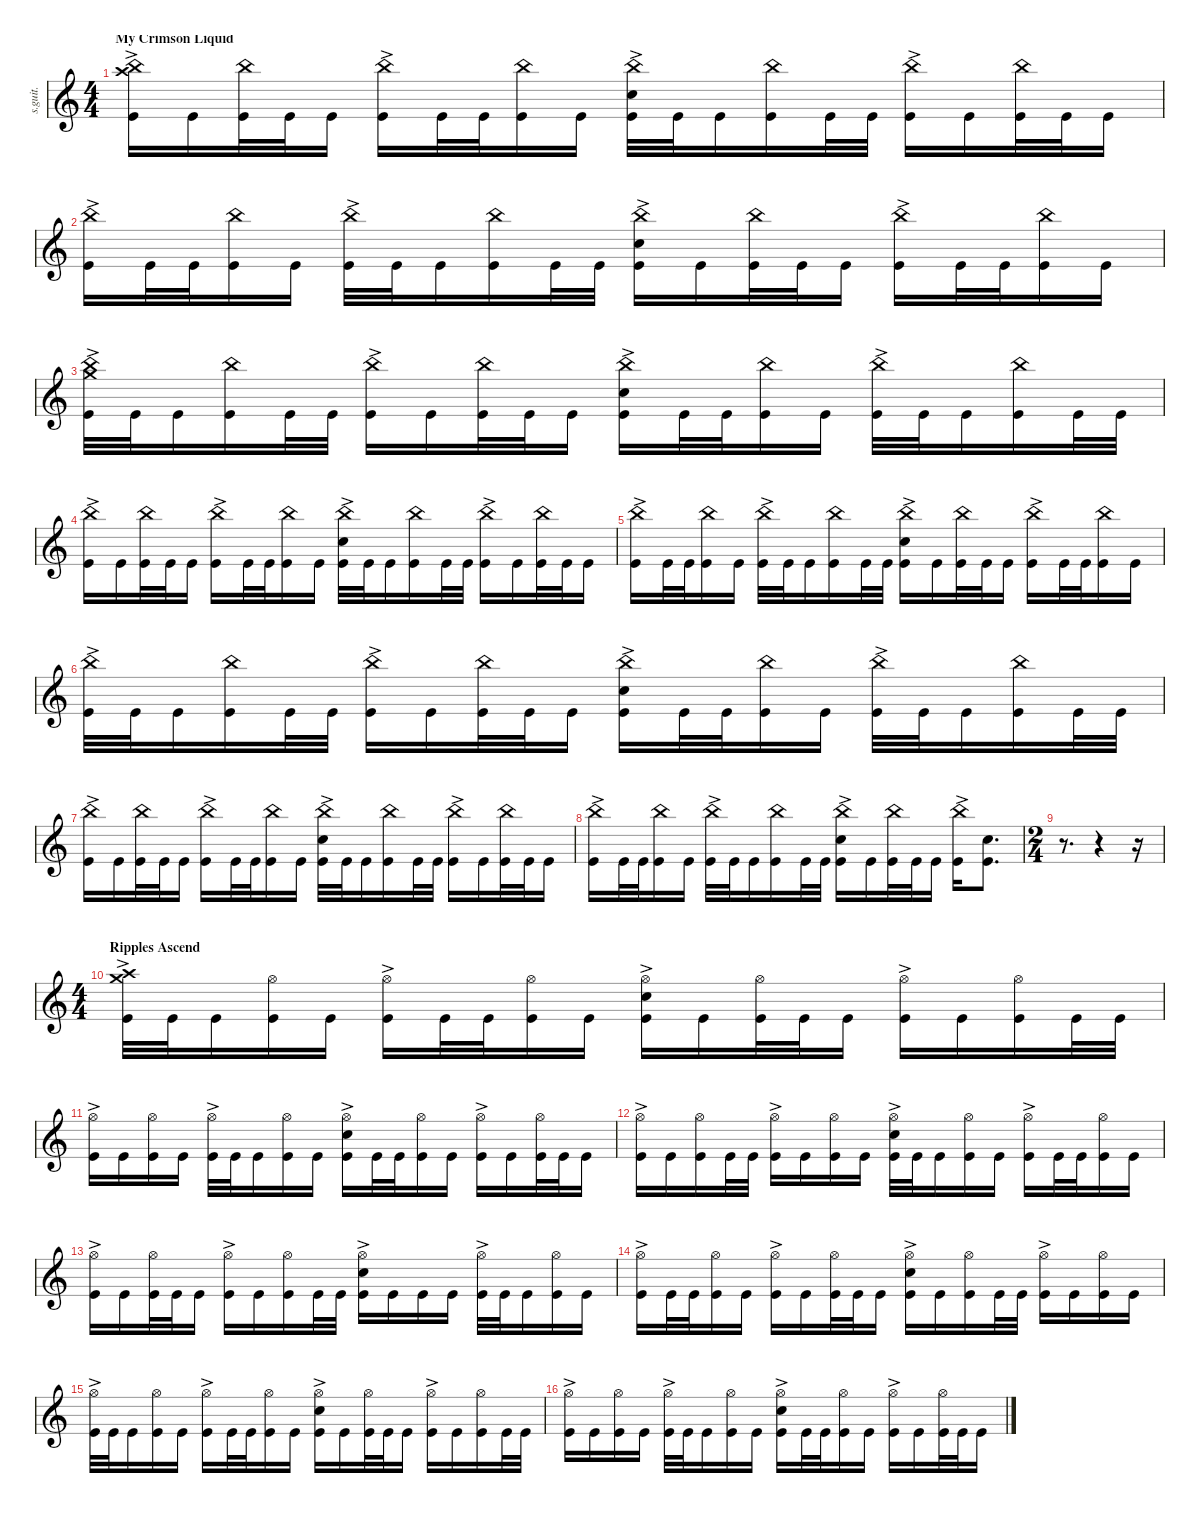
\defaultSystemsLayout 4
\hideDynamics
\bracketExtendMode nobrackets
\track ("Tomas Haake (Drums)" "s.guit.") {instrument percussion}
\staff {score}
\articulation defaults
\ts (4 4)
\section ("" "My Crimson Liquid")
\tempo (115 hide)
\clef g2
\ks c
("China (hit)"{ac} "Crash high (hit)" "Kick (hit)").16{lyrics (0 "") lyrics (1 "") lyrics (2 "") lyrics (3 "") lyrics (4 "") dy mf} "Kick (hit)".16{lyrics (0 "") lyrics (1 "") lyrics (2 "") lyrics (3 "") lyrics (4 "") dy f} ("China (hit)" "Kick (hit)").32{lyrics (0 "") lyrics (1 "") lyrics (2 "") lyrics (3 "") lyrics (4 "") dy mp} "Kick (hit)".32{lyrics (0 "") lyrics (1 "") lyrics (2 "") lyrics (3 "") lyrics (4 "") dy mf} "Kick (hit)".16{lyrics (0 "") lyrics (1 "") lyrics (2 "") lyrics (3 "") lyrics (4 "") dy f} ("China (hit)"{ac} "Kick (hit)").16{lyrics (0 "") lyrics (1 "") lyrics (2 "") lyrics (3 "") lyrics (4 "")} "Kick (hit)".32{lyrics (0 "") lyrics (1 "") lyrics (2 "") lyrics (3 "") lyrics (4 "")} "Kick (hit)".32{lyrics (0 "") lyrics (1 "") lyrics (2 "") lyrics (3 "") lyrics (4 "") dy mf} ("China (hit)" "Kick (hit)").16{lyrics (0 "") lyrics (1 "") lyrics (2 "") lyrics (3 "") lyrics (4 "") dy mp} "Kick (hit)".16{lyrics (0 "") lyrics (1 "") lyrics (2 "") lyrics (3 "") lyrics (4 "") dy f} ("China (hit)"{ac} "Snare (hit) 2" "Kick (hit)").32{lyrics (0 "") lyrics (1 "") lyrics (2 "") lyrics (3 "") lyrics (4 "")} "Kick (hit)".32{lyrics (0 "") lyrics (1 "") lyrics (2 "") lyrics (3 "") lyrics (4 "") dy mf} "Kick (hit)".16{lyrics (0 "") lyrics (1 "") lyrics (2 "") lyrics (3 "") lyrics (4 "") dy f} ("China (hit)" "Kick (hit)").16{lyrics (0 "") lyrics (1 "") lyrics (2 "") lyrics (3 "") lyrics (4 "") dy mp} "Kick (hit)".32{lyrics (0 "") lyrics (1 "") lyrics (2 "") lyrics (3 "") lyrics (4 "") dy f} "Kick (hit)".32{lyrics (0 "") lyrics (1 "") lyrics (2 "") lyrics (3 "") lyrics (4 "") dy mf} ("China (hit)"{ac} "Kick (hit)").16{lyrics (0 "") lyrics (1 "") lyrics (2 "") lyrics (3 "") lyrics (4 "") dy f} "Kick (hit)".16{lyrics (0 "") lyrics (1 "") lyrics (2 "") lyrics (3 "") lyrics (4 "")} ("China (hit)" "Kick (hit)").32{lyrics (0 "") lyrics (1 "") lyrics (2 "") lyrics (3 "") lyrics (4 "") dy mp} "Kick (hit)".32{lyrics (0 "") lyrics (1 "") lyrics (2 "") lyrics (3 "") lyrics (4 "") dy mf} "Kick (hit)".16{lyrics (0 "") lyrics (1 "") lyrics (2 "") lyrics (3 "") lyrics (4 "") dy f} |
("China (hit)"{ac} "Kick (hit)").16{lyrics (0 "") lyrics (1 "") lyrics (2 "") lyrics (3 "") lyrics (4 "")} "Kick (hit)".32{lyrics (0 "") lyrics (1 "") lyrics (2 "") lyrics (3 "") lyrics (4 "")} "Kick (hit)".32{lyrics (0 "") lyrics (1 "") lyrics (2 "") lyrics (3 "") lyrics (4 "") dy mf} ("China (hit)" "Kick (hit)").16{lyrics (0 "") lyrics (1 "") lyrics (2 "") lyrics (3 "") lyrics (4 "") dy mp} "Kick (hit)".16{lyrics (0 "") lyrics (1 "") lyrics (2 "") lyrics (3 "") lyrics (4 "") dy f} ("China (hit)"{ac} "Kick (hit)").32{lyrics (0 "") lyrics (1 "") lyrics (2 "") lyrics (3 "") lyrics (4 "")} "Kick (hit)".32{lyrics (0 "") lyrics (1 "") lyrics (2 "") lyrics (3 "") lyrics (4 "") dy mf} "Kick (hit)".16{lyrics (0 "") lyrics (1 "") lyrics (2 "") lyrics (3 "") lyrics (4 "") dy f} ("China (hit)" "Kick (hit)").16{lyrics (0 "") lyrics (1 "") lyrics (2 "") lyrics (3 "") lyrics (4 "") dy mp} "Kick (hit)".32{lyrics (0 "") lyrics (1 "") lyrics (2 "") lyrics (3 "") lyrics (4 "") dy f} "Kick (hit)".32{lyrics (0 "") lyrics (1 "") lyrics (2 "") lyrics (3 "") lyrics (4 "") dy mf} ("China (hit)"{ac} "Snare (hit) 2" "Kick (hit)").16{lyrics (0 "") lyrics (1 "") lyrics (2 "") lyrics (3 "") lyrics (4 "") dy f} "Kick (hit)".16{lyrics (0 "") lyrics (1 "") lyrics (2 "") lyrics (3 "") lyrics (4 "")} ("China (hit)" "Kick (hit)").32{lyrics (0 "") lyrics (1 "") lyrics (2 "") lyrics (3 "") lyrics (4 "") dy mp} "Kick (hit)".32{lyrics (0 "") lyrics (1 "") lyrics (2 "") lyrics (3 "") lyrics (4 "") dy mf} "Kick (hit)".16{lyrics (0 "") lyrics (1 "") lyrics (2 "") lyrics (3 "") lyrics (4 "") dy f} ("China (hit)"{ac} "Kick (hit)").16{lyrics (0 "") lyrics (1 "") lyrics (2 "") lyrics (3 "") lyrics (4 "")} "Kick (hit)".32{lyrics (0 "") lyrics (1 "") lyrics (2 "") lyrics (3 "") lyrics (4 "")} "Kick (hit)".32{lyrics (0 "") lyrics (1 "") lyrics (2 "") lyrics (3 "") lyrics (4 "") dy mf} ("China (hit)" "Kick (hit)").16{lyrics (0 "") lyrics (1 "") lyrics (2 "") lyrics (3 "") lyrics (4 "") dy mp} "Kick (hit)".16{lyrics (0 "") lyrics (1 "") lyrics (2 "") lyrics (3 "") lyrics (4 "") dy f} |
("China (hit)"{ac} "Crash medium (hit)" "Kick (hit)").32{lyrics (0 "") lyrics (1 "") lyrics (2 "") lyrics (3 "") lyrics (4 "") dy mf} "Kick (hit)".32{lyrics (0 "") lyrics (1 "") lyrics (2 "") lyrics (3 "") lyrics (4 "")} "Kick (hit)".16{lyrics (0 "") lyrics (1 "") lyrics (2 "") lyrics (3 "") lyrics (4 "") dy f} ("China (hit)" "Kick (hit)").16{lyrics (0 "") lyrics (1 "") lyrics (2 "") lyrics (3 "") lyrics (4 "") dy mp} "Kick (hit)".32{lyrics (0 "") lyrics (1 "") lyrics (2 "") lyrics (3 "") lyrics (4 "") dy f} "Kick (hit)".32{lyrics (0 "") lyrics (1 "") lyrics (2 "") lyrics (3 "") lyrics (4 "") dy mf} ("China (hit)"{ac} "Kick (hit)").16{lyrics (0 "") lyrics (1 "") lyrics (2 "") lyrics (3 "") lyrics (4 "") dy f} "Kick (hit)".16{lyrics (0 "") lyrics (1 "") lyrics (2 "") lyrics (3 "") lyrics (4 "")} ("China (hit)" "Kick (hit)").32{lyrics (0 "") lyrics (1 "") lyrics (2 "") lyrics (3 "") lyrics (4 "") dy mp} "Kick (hit)".32{lyrics (0 "") lyrics (1 "") lyrics (2 "") lyrics (3 "") lyrics (4 "") dy mf} "Kick (hit)".16{lyrics (0 "") lyrics (1 "") lyrics (2 "") lyrics (3 "") lyrics (4 "") dy f} ("China (hit)"{ac} "Snare (hit) 2" "Kick (hit)").16{lyrics (0 "") lyrics (1 "") lyrics (2 "") lyrics (3 "") lyrics (4 "")} "Kick (hit)".32{lyrics (0 "") lyrics (1 "") lyrics (2 "") lyrics (3 "") lyrics (4 "")} "Kick (hit)".32{lyrics (0 "") lyrics (1 "") lyrics (2 "") lyrics (3 "") lyrics (4 "") dy mf} ("China (hit)" "Kick (hit)").16{lyrics (0 "") lyrics (1 "") lyrics (2 "") lyrics (3 "") lyrics (4 "") dy mp} "Kick (hit)".16{lyrics (0 "") lyrics (1 "") lyrics (2 "") lyrics (3 "") lyrics (4 "") dy f} ("China (hit)"{ac} "Kick (hit)").32{lyrics (0 "") lyrics (1 "") lyrics (2 "") lyrics (3 "") lyrics (4 "")} "Kick (hit)".32{lyrics (0 "") lyrics (1 "") lyrics (2 "") lyrics (3 "") lyrics (4 "") dy mf} "Kick (hit)".16{lyrics (0 "") lyrics (1 "") lyrics (2 "") lyrics (3 "") lyrics (4 "") dy f} ("China (hit)" "Kick (hit)").16{lyrics (0 "") lyrics (1 "") lyrics (2 "") lyrics (3 "") lyrics (4 "") dy mp} "Kick (hit)".32{lyrics (0 "") lyrics (1 "") lyrics (2 "") lyrics (3 "") lyrics (4 "") dy f} "Kick (hit)".32{lyrics (0 "") lyrics (1 "") lyrics (2 "") lyrics (3 "") lyrics (4 "") dy mf} |
("China (hit)"{ac} "Kick (hit)").16{lyrics (0 "") lyrics (1 "") lyrics (2 "") lyrics (3 "") lyrics (4 "") dy f} "Kick (hit)".16{lyrics (0 "") lyrics (1 "") lyrics (2 "") lyrics (3 "") lyrics (4 "")} ("China (hit)" "Kick (hit)").32{lyrics (0 "") lyrics (1 "") lyrics (2 "") lyrics (3 "") lyrics (4 "") dy mp} "Kick (hit)".32{lyrics (0 "") lyrics (1 "") lyrics (2 "") lyrics (3 "") lyrics (4 "") dy mf} "Kick (hit)".16{lyrics (0 "") lyrics (1 "") lyrics (2 "") lyrics (3 "") lyrics (4 "") dy f} ("China (hit)"{ac} "Kick (hit)").16{lyrics (0 "") lyrics (1 "") lyrics (2 "") lyrics (3 "") lyrics (4 "")} "Kick (hit)".32{lyrics (0 "") lyrics (1 "") lyrics (2 "") lyrics (3 "") lyrics (4 "")} "Kick (hit)".32{lyrics (0 "") lyrics (1 "") lyrics (2 "") lyrics (3 "") lyrics (4 "") dy mf} ("China (hit)" "Kick (hit)").16{lyrics (0 "") lyrics (1 "") lyrics (2 "") lyrics (3 "") lyrics (4 "") dy mp} "Kick (hit)".16{lyrics (0 "") lyrics (1 "") lyrics (2 "") lyrics (3 "") lyrics (4 "") dy f} ("China (hit)"{ac} "Snare (hit) 2" "Kick (hit)").32{lyrics (0 "") lyrics (1 "") lyrics (2 "") lyrics (3 "") lyrics (4 "")} "Kick (hit)".32{lyrics (0 "") lyrics (1 "") lyrics (2 "") lyrics (3 "") lyrics (4 "") dy mf} "Kick (hit)".16{lyrics (0 "") lyrics (1 "") lyrics (2 "") lyrics (3 "") lyrics (4 "") dy f} ("China (hit)" "Kick (hit)").16{lyrics (0 "") lyrics (1 "") lyrics (2 "") lyrics (3 "") lyrics (4 "") dy mp} "Kick (hit)".32{lyrics (0 "") lyrics (1 "") lyrics (2 "") lyrics (3 "") lyrics (4 "") dy f} "Kick (hit)".32{lyrics (0 "") lyrics (1 "") lyrics (2 "") lyrics (3 "") lyrics (4 "") dy mf} ("China (hit)"{ac} "Kick (hit)").16{lyrics (0 "") lyrics (1 "") lyrics (2 "") lyrics (3 "") lyrics (4 "") dy f} "Kick (hit)".16{lyrics (0 "") lyrics (1 "") lyrics (2 "") lyrics (3 "") lyrics (4 "")} ("China (hit)" "Kick (hit)").32{lyrics (0 "") lyrics (1 "") lyrics (2 "") lyrics (3 "") lyrics (4 "") dy mp} "Kick (hit)".32{lyrics (0 "") lyrics (1 "") lyrics (2 "") lyrics (3 "") lyrics (4 "") dy mf} "Kick (hit)".16{lyrics (0 "") lyrics (1 "") lyrics (2 "") lyrics (3 "") lyrics (4 "") dy f} |
("China (hit)"{ac} "Kick (hit)").16{lyrics (0 "") lyrics (1 "") lyrics (2 "") lyrics (3 "") lyrics (4 "")} "Kick (hit)".32{lyrics (0 "") lyrics (1 "") lyrics (2 "") lyrics (3 "") lyrics (4 "")} "Kick (hit)".32{lyrics (0 "") lyrics (1 "") lyrics (2 "") lyrics (3 "") lyrics (4 "") dy mf} ("China (hit)" "Kick (hit)").16{lyrics (0 "") lyrics (1 "") lyrics (2 "") lyrics (3 "") lyrics (4 "") dy mp} "Kick (hit)".16{lyrics (0 "") lyrics (1 "") lyrics (2 "") lyrics (3 "") lyrics (4 "") dy f} ("China (hit)"{ac} "Kick (hit)").32{lyrics (0 "") lyrics (1 "") lyrics (2 "") lyrics (3 "") lyrics (4 "")} "Kick (hit)".32{lyrics (0 "") lyrics (1 "") lyrics (2 "") lyrics (3 "") lyrics (4 "") dy mf} "Kick (hit)".16{lyrics (0 "") lyrics (1 "") lyrics (2 "") lyrics (3 "") lyrics (4 "") dy f} ("China (hit)" "Kick (hit)").16{lyrics (0 "") lyrics (1 "") lyrics (2 "") lyrics (3 "") lyrics (4 "") dy mp} "Kick (hit)".32{lyrics (0 "") lyrics (1 "") lyrics (2 "") lyrics (3 "") lyrics (4 "") dy f} "Kick (hit)".32{lyrics (0 "") lyrics (1 "") lyrics (2 "") lyrics (3 "") lyrics (4 "") dy mf} ("China (hit)"{ac} "Snare (hit) 2" "Kick (hit)").16{lyrics (0 "") lyrics (1 "") lyrics (2 "") lyrics (3 "") lyrics (4 "") dy f} "Kick (hit)".16{lyrics (0 "") lyrics (1 "") lyrics (2 "") lyrics (3 "") lyrics (4 "")} ("China (hit)" "Kick (hit)").32{lyrics (0 "") lyrics (1 "") lyrics (2 "") lyrics (3 "") lyrics (4 "") dy mp} "Kick (hit)".32{lyrics (0 "") lyrics (1 "") lyrics (2 "") lyrics (3 "") lyrics (4 "") dy mf} "Kick (hit)".16{lyrics (0 "") lyrics (1 "") lyrics (2 "") lyrics (3 "") lyrics (4 "") dy f} ("China (hit)"{ac} "Kick (hit)").16{lyrics (0 "") lyrics (1 "") lyrics (2 "") lyrics (3 "") lyrics (4 "")} "Kick (hit)".32{lyrics (0 "") lyrics (1 "") lyrics (2 "") lyrics (3 "") lyrics (4 "")} "Kick (hit)".32{lyrics (0 "") lyrics (1 "") lyrics (2 "") lyrics (3 "") lyrics (4 "") dy mf} ("China (hit)" "Kick (hit)").16{lyrics (0 "") lyrics (1 "") lyrics (2 "") lyrics (3 "") lyrics (4 "") dy mp} "Kick (hit)".16{lyrics (0 "") lyrics (1 "") lyrics (2 "") lyrics (3 "") lyrics (4 "") dy f} |
("China (hit)"{ac} "Kick (hit)").32{lyrics (0 "") lyrics (1 "") lyrics (2 "") lyrics (3 "") lyrics (4 "")} "Kick (hit)".32{lyrics (0 "") lyrics (1 "") lyrics (2 "") lyrics (3 "") lyrics (4 "") dy mf} "Kick (hit)".16{lyrics (0 "") lyrics (1 "") lyrics (2 "") lyrics (3 "") lyrics (4 "") dy f} ("China (hit)" "Kick (hit)").16{lyrics (0 "") lyrics (1 "") lyrics (2 "") lyrics (3 "") lyrics (4 "") dy mp} "Kick (hit)".32{lyrics (0 "") lyrics (1 "") lyrics (2 "") lyrics (3 "") lyrics (4 "") dy f} "Kick (hit)".32{lyrics (0 "") lyrics (1 "") lyrics (2 "") lyrics (3 "") lyrics (4 "") dy mf} ("China (hit)"{ac} "Kick (hit)").16{lyrics (0 "") lyrics (1 "") lyrics (2 "") lyrics (3 "") lyrics (4 "") dy f} "Kick (hit)".16{lyrics (0 "") lyrics (1 "") lyrics (2 "") lyrics (3 "") lyrics (4 "")} ("China (hit)" "Kick (hit)").32{lyrics (0 "") lyrics (1 "") lyrics (2 "") lyrics (3 "") lyrics (4 "") dy mp} "Kick (hit)".32{lyrics (0 "") lyrics (1 "") lyrics (2 "") lyrics (3 "") lyrics (4 "") dy mf} "Kick (hit)".16{lyrics (0 "") lyrics (1 "") lyrics (2 "") lyrics (3 "") lyrics (4 "") dy f} ("China (hit)"{ac} "Snare (hit) 2" "Kick (hit)").16{lyrics (0 "") lyrics (1 "") lyrics (2 "") lyrics (3 "") lyrics (4 "")} "Kick (hit)".32{lyrics (0 "") lyrics (1 "") lyrics (2 "") lyrics (3 "") lyrics (4 "")} "Kick (hit)".32{lyrics (0 "") lyrics (1 "") lyrics (2 "") lyrics (3 "") lyrics (4 "") dy mf} ("China (hit)" "Kick (hit)").16{lyrics (0 "") lyrics (1 "") lyrics (2 "") lyrics (3 "") lyrics (4 "") dy mp} "Kick (hit)".16{lyrics (0 "") lyrics (1 "") lyrics (2 "") lyrics (3 "") lyrics (4 "") dy f} ("China (hit)"{ac} "Kick (hit)").32{lyrics (0 "") lyrics (1 "") lyrics (2 "") lyrics (3 "") lyrics (4 "")} "Kick (hit)".32{lyrics (0 "") lyrics (1 "") lyrics (2 "") lyrics (3 "") lyrics (4 "") dy mf} "Kick (hit)".16{lyrics (0 "") lyrics (1 "") lyrics (2 "") lyrics (3 "") lyrics (4 "") dy f} ("China (hit)" "Kick (hit)").16{lyrics (0 "") lyrics (1 "") lyrics (2 "") lyrics (3 "") lyrics (4 "") dy mp} "Kick (hit)".32{lyrics (0 "") lyrics (1 "") lyrics (2 "") lyrics (3 "") lyrics (4 "") dy f} "Kick (hit)".32{lyrics (0 "") lyrics (1 "") lyrics (2 "") lyrics (3 "") lyrics (4 "") dy mf} |
("China (hit)"{ac} "Kick (hit)").16{lyrics (0 "") lyrics (1 "") lyrics (2 "") lyrics (3 "") lyrics (4 "") dy f} "Kick (hit)".16{lyrics (0 "") lyrics (1 "") lyrics (2 "") lyrics (3 "") lyrics (4 "")} ("China (hit)" "Kick (hit)").32{lyrics (0 "") lyrics (1 "") lyrics (2 "") lyrics (3 "") lyrics (4 "") dy mp} "Kick (hit)".32{lyrics (0 "") lyrics (1 "") lyrics (2 "") lyrics (3 "") lyrics (4 "") dy mf} "Kick (hit)".16{lyrics (0 "") lyrics (1 "") lyrics (2 "") lyrics (3 "") lyrics (4 "") dy f} ("China (hit)"{ac} "Kick (hit)").16{lyrics (0 "") lyrics (1 "") lyrics (2 "") lyrics (3 "") lyrics (4 "")} "Kick (hit)".32{lyrics (0 "") lyrics (1 "") lyrics (2 "") lyrics (3 "") lyrics (4 "")} "Kick (hit)".32{lyrics (0 "") lyrics (1 "") lyrics (2 "") lyrics (3 "") lyrics (4 "") dy mf} ("China (hit)" "Kick (hit)").16{lyrics (0 "") lyrics (1 "") lyrics (2 "") lyrics (3 "") lyrics (4 "") dy mp} "Kick (hit)".16{lyrics (0 "") lyrics (1 "") lyrics (2 "") lyrics (3 "") lyrics (4 "") dy f} ("China (hit)"{ac} "Snare (hit) 2" "Kick (hit)").32{lyrics (0 "") lyrics (1 "") lyrics (2 "") lyrics (3 "") lyrics (4 "")} "Kick (hit)".32{lyrics (0 "") lyrics (1 "") lyrics (2 "") lyrics (3 "") lyrics (4 "") dy mf} "Kick (hit)".16{lyrics (0 "") lyrics (1 "") lyrics (2 "") lyrics (3 "") lyrics (4 "") dy f} ("China (hit)" "Kick (hit)").16{lyrics (0 "") lyrics (1 "") lyrics (2 "") lyrics (3 "") lyrics (4 "") dy mp} "Kick (hit)".32{lyrics (0 "") lyrics (1 "") lyrics (2 "") lyrics (3 "") lyrics (4 "") dy f} "Kick (hit)".32{lyrics (0 "") lyrics (1 "") lyrics (2 "") lyrics (3 "") lyrics (4 "") dy mf} ("China (hit)"{ac} "Kick (hit)").16{lyrics (0 "") lyrics (1 "") lyrics (2 "") lyrics (3 "") lyrics (4 "") dy f} "Kick (hit)".16{lyrics (0 "") lyrics (1 "") lyrics (2 "") lyrics (3 "") lyrics (4 "")} ("China (hit)" "Kick (hit)").32{lyrics (0 "") lyrics (1 "") lyrics (2 "") lyrics (3 "") lyrics (4 "") dy mp} "Kick (hit)".32{lyrics (0 "") lyrics (1 "") lyrics (2 "") lyrics (3 "") lyrics (4 "") dy mf} "Kick (hit)".16{lyrics (0 "") lyrics (1 "") lyrics (2 "") lyrics (3 "") lyrics (4 "") dy f} |
("China (hit)"{ac} "Kick (hit)").16{lyrics (0 "") lyrics (1 "") lyrics (2 "") lyrics (3 "") lyrics (4 "")} "Kick (hit)".32{lyrics (0 "") lyrics (1 "") lyrics (2 "") lyrics (3 "") lyrics (4 "")} "Kick (hit)".32{lyrics (0 "") lyrics (1 "") lyrics (2 "") lyrics (3 "") lyrics (4 "") dy mf} ("China (hit)" "Kick (hit)").16{lyrics (0 "") lyrics (1 "") lyrics (2 "") lyrics (3 "") lyrics (4 "") dy mp} "Kick (hit)".16{lyrics (0 "") lyrics (1 "") lyrics (2 "") lyrics (3 "") lyrics (4 "") dy f} ("China (hit)"{ac} "Kick (hit)").32{lyrics (0 "") lyrics (1 "") lyrics (2 "") lyrics (3 "") lyrics (4 "")} "Kick (hit)".32{lyrics (0 "") lyrics (1 "") lyrics (2 "") lyrics (3 "") lyrics (4 "") dy mf} "Kick (hit)".16{lyrics (0 "") lyrics (1 "") lyrics (2 "") lyrics (3 "") lyrics (4 "") dy f} ("China (hit)" "Kick (hit)").16{lyrics (0 "") lyrics (1 "") lyrics (2 "") lyrics (3 "") lyrics (4 "") dy mp} "Kick (hit)".32{lyrics (0 "") lyrics (1 "") lyrics (2 "") lyrics (3 "") lyrics (4 "") dy f} "Kick (hit)".32{lyrics (0 "") lyrics (1 "") lyrics (2 "") lyrics (3 "") lyrics (4 "") dy mf} ("China (hit)"{ac} "Snare (hit) 2" "Kick (hit)").16{lyrics (0 "") lyrics (1 "") lyrics (2 "") lyrics (3 "") lyrics (4 "") dy f} "Kick (hit)".16{lyrics (0 "") lyrics (1 "") lyrics (2 "") lyrics (3 "") lyrics (4 "")} ("China (hit)" "Kick (hit)").32{lyrics (0 "") lyrics (1 "") lyrics (2 "") lyrics (3 "") lyrics (4 "") dy mp} "Kick (hit)".32{lyrics (0 "") lyrics (1 "") lyrics (2 "") lyrics (3 "") lyrics (4 "") dy mf} "Kick (hit)".16{lyrics (0 "") lyrics (1 "") lyrics (2 "") lyrics (3 "") lyrics (4 "") dy f} ("China (hit)"{ac} "Kick (hit)").16{lyrics (0 "") lyrics (1 "") lyrics (2 "") lyrics (3 "") lyrics (4 "")} ("Snare (hit) 2" "Kick (hit)").8{d lyrics (0 "") lyrics (1 "") lyrics (2 "") lyrics (3 "") lyrics (4 "")} |
\ts (2 4)
\beaming (8 2 2 2 2)
r.8{d} r.4 r.16 |
\ts (4 4)
\beaming (8 2 2 2 2)
\section ("" "Ripples Ascend")
("Crash high (hit)"{ac} "Crash medium (hit)" "Kick (hit)").32{lyrics (0 "") lyrics (1 "") lyrics (2 "") lyrics (3 "") lyrics (4 "")} "Kick (hit)".32{lyrics (0 "") lyrics (1 "") lyrics (2 "") lyrics (3 "") lyrics (4 "") dy mf} "Kick (hit)".16{lyrics (0 "") lyrics (1 "") lyrics (2 "") lyrics (3 "") lyrics (4 "") dy f} ("Hi-Hat (open)" "Kick (hit)").16{lyrics (0 "") lyrics (1 "") lyrics (2 "") lyrics (3 "") lyrics (4 "") dy mp} "Kick (hit)".16{lyrics (0 "") lyrics (1 "") lyrics (2 "") lyrics (3 "") lyrics (4 "") dy f} ("Hi-Hat (open)"{ac} "Kick (hit)").16{lyrics (0 "") lyrics (1 "") lyrics (2 "") lyrics (3 "") lyrics (4 "")} "Kick (hit)".32{lyrics (0 "") lyrics (1 "") lyrics (2 "") lyrics (3 "") lyrics (4 "")} "Kick (hit)".32{lyrics (0 "") lyrics (1 "") lyrics (2 "") lyrics (3 "") lyrics (4 "") dy mf} ("Hi-Hat (open)" "Kick (hit)").16{lyrics (0 "") lyrics (1 "") lyrics (2 "") lyrics (3 "") lyrics (4 "") dy mp} "Kick (hit)".16{lyrics (0 "") lyrics (1 "") lyrics (2 "") lyrics (3 "") lyrics (4 "") dy f} ("Hi-Hat (open)"{ac} "Snare (hit) 2" "Kick (hit)").16{lyrics (0 "") lyrics (1 "") lyrics (2 "") lyrics (3 "") lyrics (4 "")} "Kick (hit)".16{lyrics (0 "") lyrics (1 "") lyrics (2 "") lyrics (3 "") lyrics (4 "")} ("Hi-Hat (open)" "Kick (hit)").32{lyrics (0 "") lyrics (1 "") lyrics (2 "") lyrics (3 "") lyrics (4 "") dy mp} "Kick (hit)".32{lyrics (0 "") lyrics (1 "") lyrics (2 "") lyrics (3 "") lyrics (4 "") dy mf} "Kick (hit)".16{lyrics (0 "") lyrics (1 "") lyrics (2 "") lyrics (3 "") lyrics (4 "") dy f} ("Hi-Hat (open)"{ac} "Kick (hit)").16{lyrics (0 "") lyrics (1 "") lyrics (2 "") lyrics (3 "") lyrics (4 "")} "Kick (hit)".16{lyrics (0 "") lyrics (1 "") lyrics (2 "") lyrics (3 "") lyrics (4 "")} ("Hi-Hat (open)" "Kick (hit)").16{lyrics (0 "") lyrics (1 "") lyrics (2 "") lyrics (3 "") lyrics (4 "") dy mp} "Kick (hit)".32{lyrics (0 "") lyrics (1 "") lyrics (2 "") lyrics (3 "") lyrics (4 "") dy f} "Kick (hit)".32{lyrics (0 "") lyrics (1 "") lyrics (2 "") lyrics (3 "") lyrics (4 "") dy mf} |
("Hi-Hat (open)"{ac} "Kick (hit)").16{lyrics (0 "") lyrics (1 "") lyrics (2 "") lyrics (3 "") lyrics (4 "") dy f} "Kick (hit)".16{lyrics (0 "") lyrics (1 "") lyrics (2 "") lyrics (3 "") lyrics (4 "")} ("Hi-Hat (open)" "Kick (hit)").16{lyrics (0 "") lyrics (1 "") lyrics (2 "") lyrics (3 "") lyrics (4 "") dy mp} "Kick (hit)".16{lyrics (0 "") lyrics (1 "") lyrics (2 "") lyrics (3 "") lyrics (4 "") dy f} ("Hi-Hat (open)"{ac} "Kick (hit)").32{lyrics (0 "") lyrics (1 "") lyrics (2 "") lyrics (3 "") lyrics (4 "")} "Kick (hit)".32{lyrics (0 "") lyrics (1 "") lyrics (2 "") lyrics (3 "") lyrics (4 "") dy mf} "Kick (hit)".16{lyrics (0 "") lyrics (1 "") lyrics (2 "") lyrics (3 "") lyrics (4 "") dy f} ("Hi-Hat (open)" "Kick (hit)").16{lyrics (0 "") lyrics (1 "") lyrics (2 "") lyrics (3 "") lyrics (4 "") dy mp} "Kick (hit)".16{lyrics (0 "") lyrics (1 "") lyrics (2 "") lyrics (3 "") lyrics (4 "") dy f} ("Hi-Hat (open)"{ac} "Snare (hit) 2" "Kick (hit)").16{lyrics (0 "") lyrics (1 "") lyrics (2 "") lyrics (3 "") lyrics (4 "")} "Kick (hit)".32{lyrics (0 "") lyrics (1 "") lyrics (2 "") lyrics (3 "") lyrics (4 "")} "Kick (hit)".32{lyrics (0 "") lyrics (1 "") lyrics (2 "") lyrics (3 "") lyrics (4 "") dy mf} ("Hi-Hat (open)" "Kick (hit)").16{lyrics (0 "") lyrics (1 "") lyrics (2 "") lyrics (3 "") lyrics (4 "") dy mp} "Kick (hit)".16{lyrics (0 "") lyrics (1 "") lyrics (2 "") lyrics (3 "") lyrics (4 "") dy f} ("Hi-Hat (open)"{ac} "Kick (hit)").16{lyrics (0 "") lyrics (1 "") lyrics (2 "") lyrics (3 "") lyrics (4 "")} "Kick (hit)".16{lyrics (0 "") lyrics (1 "") lyrics (2 "") lyrics (3 "") lyrics (4 "")} ("Hi-Hat (open)" "Kick (hit)").32{lyrics (0 "") lyrics (1 "") lyrics (2 "") lyrics (3 "") lyrics (4 "") dy mp} "Kick (hit)".32{lyrics (0 "") lyrics (1 "") lyrics (2 "") lyrics (3 "") lyrics (4 "") dy mf} "Kick (hit)".16{lyrics (0 "") lyrics (1 "") lyrics (2 "") lyrics (3 "") lyrics (4 "") dy f} |
("Hi-Hat (open)"{ac} "Kick (hit)").16{lyrics (0 "") lyrics (1 "") lyrics (2 "") lyrics (3 "") lyrics (4 "")} "Kick (hit)".16{lyrics (0 "") lyrics (1 "") lyrics (2 "") lyrics (3 "") lyrics (4 "")} ("Hi-Hat (open)" "Kick (hit)").16{lyrics (0 "") lyrics (1 "") lyrics (2 "") lyrics (3 "") lyrics (4 "") dy mp} "Kick (hit)".32{lyrics (0 "") lyrics (1 "") lyrics (2 "") lyrics (3 "") lyrics (4 "") dy f} "Kick (hit)".32{lyrics (0 "") lyrics (1 "") lyrics (2 "") lyrics (3 "") lyrics (4 "") dy mf} ("Hi-Hat (open)"{ac} "Kick (hit)").16{lyrics (0 "") lyrics (1 "") lyrics (2 "") lyrics (3 "") lyrics (4 "") dy f} "Kick (hit)".16{lyrics (0 "") lyrics (1 "") lyrics (2 "") lyrics (3 "") lyrics (4 "")} ("Hi-Hat (open)" "Kick (hit)").16{lyrics (0 "") lyrics (1 "") lyrics (2 "") lyrics (3 "") lyrics (4 "") dy mp} "Kick (hit)".16{lyrics (0 "") lyrics (1 "") lyrics (2 "") lyrics (3 "") lyrics (4 "") dy f} ("Hi-Hat (open)"{ac} "Snare (hit) 2" "Kick (hit)").32{lyrics (0 "") lyrics (1 "") lyrics (2 "") lyrics (3 "") lyrics (4 "")} "Kick (hit)".32{lyrics (0 "") lyrics (1 "") lyrics (2 "") lyrics (3 "") lyrics (4 "") dy mf} "Kick (hit)".16{lyrics (0 "") lyrics (1 "") lyrics (2 "") lyrics (3 "") lyrics (4 "") dy f} ("Hi-Hat (open)" "Kick (hit)").16{lyrics (0 "") lyrics (1 "") lyrics (2 "") lyrics (3 "") lyrics (4 "") dy mp} "Kick (hit)".16{lyrics (0 "") lyrics (1 "") lyrics (2 "") lyrics (3 "") lyrics (4 "") dy f} ("Hi-Hat (open)"{ac} "Kick (hit)").16{lyrics (0 "") lyrics (1 "") lyrics (2 "") lyrics (3 "") lyrics (4 "")} "Kick (hit)".32{lyrics (0 "") lyrics (1 "") lyrics (2 "") lyrics (3 "") lyrics (4 "")} "Kick (hit)".32{lyrics (0 "") lyrics (1 "") lyrics (2 "") lyrics (3 "") lyrics (4 "") dy mf} ("Hi-Hat (open)" "Kick (hit)").16{lyrics (0 "") lyrics (1 "") lyrics (2 "") lyrics (3 "") lyrics (4 "") dy mp} "Kick (hit)".16{lyrics (0 "") lyrics (1 "") lyrics (2 "") lyrics (3 "") lyrics (4 "") dy f} |
("Hi-Hat (open)"{ac} "Kick (hit)").16{lyrics (0 "") lyrics (1 "") lyrics (2 "") lyrics (3 "") lyrics (4 "")} "Kick (hit)".16{lyrics (0 "") lyrics (1 "") lyrics (2 "") lyrics (3 "") lyrics (4 "")} ("Hi-Hat (open)" "Kick (hit)").32{lyrics (0 "") lyrics (1 "") lyrics (2 "") lyrics (3 "") lyrics (4 "") dy mp} "Kick (hit)".32{lyrics (0 "") lyrics (1 "") lyrics (2 "") lyrics (3 "") lyrics (4 "") dy mf} "Kick (hit)".16{lyrics (0 "") lyrics (1 "") lyrics (2 "") lyrics (3 "") lyrics (4 "") dy f} ("Hi-Hat (open)"{ac} "Kick (hit)").16{lyrics (0 "") lyrics (1 "") lyrics (2 "") lyrics (3 "") lyrics (4 "")} "Kick (hit)".16{lyrics (0 "") lyrics (1 "") lyrics (2 "") lyrics (3 "") lyrics (4 "")} ("Hi-Hat (open)" "Kick (hit)").16{lyrics (0 "") lyrics (1 "") lyrics (2 "") lyrics (3 "") lyrics (4 "") dy mp} "Kick (hit)".32{lyrics (0 "") lyrics (1 "") lyrics (2 "") lyrics (3 "") lyrics (4 "") dy f} "Kick (hit)".32{lyrics (0 "") lyrics (1 "") lyrics (2 "") lyrics (3 "") lyrics (4 "") dy mf} ("Snare (hit) 2" "Kick (hit)" "Hi-Hat (open)"{ac}).16{lyrics (0 "") lyrics (1 "") lyrics (2 "") lyrics (3 "") lyrics (4 "") dy f} "Kick (hit)".16{lyrics (0 "") lyrics (1 "") lyrics (2 "") lyrics (3 "") lyrics (4 "")} "Kick (hit)".16{lyrics (0 "") lyrics (1 "") lyrics (2 "") lyrics (3 "") lyrics (4 "")} "Kick (hit)".16{lyrics (0 "") lyrics (1 "") lyrics (2 "") lyrics (3 "") lyrics (4 "")} ("Hi-Hat (open)"{ac} "Kick (hit)").32{lyrics (0 "") lyrics (1 "") lyrics (2 "") lyrics (3 "") lyrics (4 "")} "Kick (hit)".32{lyrics (0 "") lyrics (1 "") lyrics (2 "") lyrics (3 "") lyrics (4 "") dy mf} "Kick (hit)".16{lyrics (0 "") lyrics (1 "") lyrics (2 "") lyrics (3 "") lyrics (4 "") dy f} ("Hi-Hat (open)" "Kick (hit)").16{lyrics (0 "") lyrics (1 "") lyrics (2 "") lyrics (3 "") lyrics (4 "") dy mp} "Kick (hit)".16{lyrics (0 "") lyrics (1 "") lyrics (2 "") lyrics (3 "") lyrics (4 "") dy f} |
("Hi-Hat (open)"{ac} "Kick (hit)").16{lyrics (0 "") lyrics (1 "") lyrics (2 "") lyrics (3 "") lyrics (4 "")} "Kick (hit)".32{lyrics (0 "") lyrics (1 "") lyrics (2 "") lyrics (3 "") lyrics (4 "")} "Kick (hit)".32{lyrics (0 "") lyrics (1 "") lyrics (2 "") lyrics (3 "") lyrics (4 "") dy mf} ("Hi-Hat (open)" "Kick (hit)").16{lyrics (0 "") lyrics (1 "") lyrics (2 "") lyrics (3 "") lyrics (4 "") dy mp} "Kick (hit)".16{lyrics (0 "") lyrics (1 "") lyrics (2 "") lyrics (3 "") lyrics (4 "") dy f} ("Hi-Hat (open)"{ac} "Kick (hit)").16{lyrics (0 "") lyrics (1 "") lyrics (2 "") lyrics (3 "") lyrics (4 "")} "Kick (hit)".16{lyrics (0 "") lyrics (1 "") lyrics (2 "") lyrics (3 "") lyrics (4 "")} ("Hi-Hat (open)" "Kick (hit)").32{lyrics (0 "") lyrics (1 "") lyrics (2 "") lyrics (3 "") lyrics (4 "") dy mp} "Kick (hit)".32{lyrics (0 "") lyrics (1 "") lyrics (2 "") lyrics (3 "") lyrics (4 "") dy mf} "Kick (hit)".16{lyrics (0 "") lyrics (1 "") lyrics (2 "") lyrics (3 "") lyrics (4 "") dy f} ("Hi-Hat (open)"{ac} "Snare (hit) 2" "Kick (hit)").16{lyrics (0 "") lyrics (1 "") lyrics (2 "") lyrics (3 "") lyrics (4 "")} "Kick (hit)".16{lyrics (0 "") lyrics (1 "") lyrics (2 "") lyrics (3 "") lyrics (4 "")} ("Hi-Hat (open)" "Kick (hit)").16{lyrics (0 "") lyrics (1 "") lyrics (2 "") lyrics (3 "") lyrics (4 "") dy mp} "Kick (hit)".32{lyrics (0 "") lyrics (1 "") lyrics (2 "") lyrics (3 "") lyrics (4 "") dy f} "Kick (hit)".32{lyrics (0 "") lyrics (1 "") lyrics (2 "") lyrics (3 "") lyrics (4 "") dy mf} ("Hi-Hat (open)"{ac} "Kick (hit)").16{lyrics (0 "") lyrics (1 "") lyrics (2 "") lyrics (3 "") lyrics (4 "") dy f} "Kick (hit)".16{lyrics (0 "") lyrics (1 "") lyrics (2 "") lyrics (3 "") lyrics (4 "")} ("Hi-Hat (open)" "Kick (hit)").16{lyrics (0 "") lyrics (1 "") lyrics (2 "") lyrics (3 "") lyrics (4 "") dy mp} "Kick (hit)".16{lyrics (0 "") lyrics (1 "") lyrics (2 "") lyrics (3 "") lyrics (4 "") dy f} |
("Hi-Hat (open)"{ac} "Kick (hit)").32{lyrics (0 "") lyrics (1 "") lyrics (2 "") lyrics (3 "") lyrics (4 "")} "Kick (hit)".32{lyrics (0 "") lyrics (1 "") lyrics (2 "") lyrics (3 "") lyrics (4 "") dy mf} "Kick (hit)".16{lyrics (0 "") lyrics (1 "") lyrics (2 "") lyrics (3 "") lyrics (4 "") dy f} ("Hi-Hat (open)" "Kick (hit)").16{lyrics (0 "") lyrics (1 "") lyrics (2 "") lyrics (3 "") lyrics (4 "") dy mp} "Kick (hit)".16{lyrics (0 "") lyrics (1 "") lyrics (2 "") lyrics (3 "") lyrics (4 "") dy f} ("Hi-Hat (open)"{ac} "Kick (hit)").16{lyrics (0 "") lyrics (1 "") lyrics (2 "") lyrics (3 "") lyrics (4 "")} "Kick (hit)".32{lyrics (0 "") lyrics (1 "") lyrics (2 "") lyrics (3 "") lyrics (4 "")} "Kick (hit)".32{lyrics (0 "") lyrics (1 "") lyrics (2 "") lyrics (3 "") lyrics (4 "") dy mf} ("Hi-Hat (open)" "Kick (hit)").16{lyrics (0 "") lyrics (1 "") lyrics (2 "") lyrics (3 "") lyrics (4 "") dy mp} "Kick (hit)".16{lyrics (0 "") lyrics (1 "") lyrics (2 "") lyrics (3 "") lyrics (4 "") dy f} ("Hi-Hat (open)"{ac} "Snare (hit) 2" "Kick (hit)").16{lyrics (0 "") lyrics (1 "") lyrics (2 "") lyrics (3 "") lyrics (4 "")} "Kick (hit)".16{lyrics (0 "") lyrics (1 "") lyrics (2 "") lyrics (3 "") lyrics (4 "")} ("Hi-Hat (open)" "Kick (hit)").32{lyrics (0 "") lyrics (1 "") lyrics (2 "") lyrics (3 "") lyrics (4 "") dy mp} "Kick (hit)".32{lyrics (0 "") lyrics (1 "") lyrics (2 "") lyrics (3 "") lyrics (4 "") dy mf} "Kick (hit)".16{lyrics (0 "") lyrics (1 "") lyrics (2 "") lyrics (3 "") lyrics (4 "") dy f} ("Hi-Hat (open)"{ac} "Kick (hit)").16{lyrics (0 "") lyrics (1 "") lyrics (2 "") lyrics (3 "") lyrics (4 "")} "Kick (hit)".16{lyrics (0 "") lyrics (1 "") lyrics (2 "") lyrics (3 "") lyrics (4 "")} ("Hi-Hat (open)" "Kick (hit)").16{lyrics (0 "") lyrics (1 "") lyrics (2 "") lyrics (3 "") lyrics (4 "") dy mp} "Kick (hit)".32{lyrics (0 "") lyrics (1 "") lyrics (2 "") lyrics (3 "") lyrics (4 "") dy f} "Kick (hit)".32{lyrics (0 "") lyrics (1 "") lyrics (2 "") lyrics (3 "") lyrics (4 "") dy mf} |
("Hi-Hat (open)"{ac} "Kick (hit)").16{lyrics (0 "") lyrics (1 "") lyrics (2 "") lyrics (3 "") lyrics (4 "") dy f} "Kick (hit)".16{lyrics (0 "") lyrics (1 "") lyrics (2 "") lyrics (3 "") lyrics (4 "")} ("Hi-Hat (open)" "Kick (hit)").16{lyrics (0 "") lyrics (1 "") lyrics (2 "") lyrics (3 "") lyrics (4 "") dy mp} "Kick (hit)".16{lyrics (0 "") lyrics (1 "") lyrics (2 "") lyrics (3 "") lyrics (4 "") dy f} ("Hi-Hat (open)"{ac} "Kick (hit)").32{lyrics (0 "") lyrics (1 "") lyrics (2 "") lyrics (3 "") lyrics (4 "")} "Kick (hit)".32{lyrics (0 "") lyrics (1 "") lyrics (2 "") lyrics (3 "") lyrics (4 "") dy mf} "Kick (hit)".16{lyrics (0 "") lyrics (1 "") lyrics (2 "") lyrics (3 "") lyrics (4 "") dy f} ("Hi-Hat (open)" "Kick (hit)").16{lyrics (0 "") lyrics (1 "") lyrics (2 "") lyrics (3 "") lyrics (4 "") dy mp} "Kick (hit)".16{lyrics (0 "") lyrics (1 "") lyrics (2 "") lyrics (3 "") lyrics (4 "") dy f} ("Hi-Hat (open)"{ac} "Snare (hit) 2" "Kick (hit)").16{lyrics (0 "") lyrics (1 "") lyrics (2 "") lyrics (3 "") lyrics (4 "")} "Kick (hit)".32{lyrics (0 "") lyrics (1 "") lyrics (2 "") lyrics (3 "") lyrics (4 "")} "Kick (hit)".32{lyrics (0 "") lyrics (1 "") lyrics (2 "") lyrics (3 "") lyrics (4 "") dy mf} ("Hi-Hat (open)" "Kick (hit)").16{lyrics (0 "") lyrics (1 "") lyrics (2 "") lyrics (3 "") lyrics (4 "") dy mp} "Kick (hit)".16{lyrics (0 "") lyrics (1 "") lyrics (2 "") lyrics (3 "") lyrics (4 "") dy f} ("Hi-Hat (open)"{ac} "Kick (hit)").16{lyrics (0 "") lyrics (1 "") lyrics (2 "") lyrics (3 "") lyrics (4 "")} "Kick (hit)".16{lyrics (0 "") lyrics (1 "") lyrics (2 "") lyrics (3 "") lyrics (4 "")} ("Hi-Hat (open)" "Kick (hit)").32{lyrics (0 "") lyrics (1 "") lyrics (2 "") lyrics (3 "") lyrics (4 "") dy mp} "Kick (hit)".32{lyrics (0 "") lyrics (1 "") lyrics (2 "") lyrics (3 "") lyrics (4 "") dy mf} "Kick (hit)".16{lyrics (0 "") lyrics (1 "") lyrics (2 "") lyrics (3 "") lyrics (4 "") dy f}
